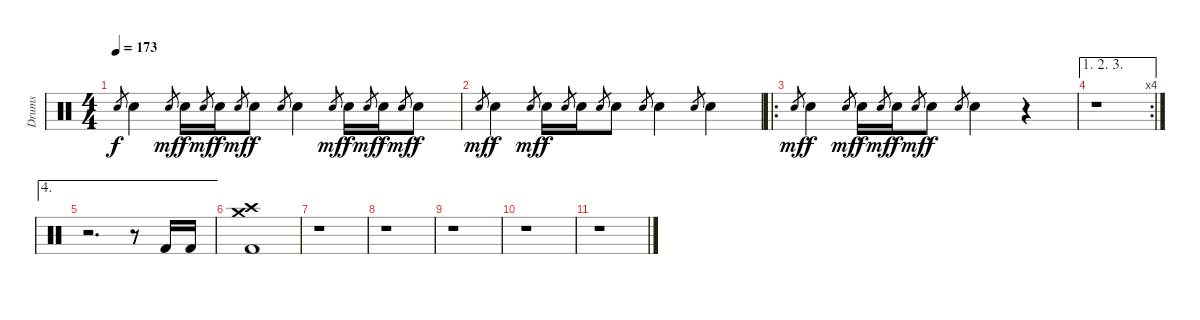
\track ("Drums" "Drums") {instrument percussion}
\staff {score}
\articulation defaults
\ts (4 4)
\tempo 173
\clef neutral
\ks c "Electric Snare (hit)".8{gr dy f} "Electric Snare (hit)".4 "Electric Snare (hit)".8{gr dy mf} "Electric Snare (hit)".16{dy f} "Electric Snare (hit)".8{gr dy mf} "Electric Snare (hit)".16{dy f} "Electric Snare (hit)".8{gr dy mf} "Electric Snare (hit)".8{dy f} "Electric Snare (hit)".8{gr} "Electric Snare (hit)".4 "Electric Snare (hit)".8{gr dy mf} "Electric Snare (hit)".16{dy f} "Electric Snare (hit)".8{gr dy mf} "Electric Snare (hit)".16{dy f} "Electric Snare (hit)".8{gr dy mf} "Electric Snare (hit)".8{dy f}
|
"Electric Snare (hit)".8{gr dy mf} "Electric Snare (hit)".4{dy f} "Electric Snare (hit)".8{gr dy mf} "Electric Snare (hit)".16{dy f} "Electric Snare (hit)".8{gr} "Electric Snare (hit)".16 "Electric Snare (hit)".8{gr} "Electric Snare (hit)".8 "Electric Snare (hit)".8{gr} "Electric Snare (hit)".4 "Electric Snare (hit)".8{gr} "Electric Snare (hit)".4 |
\ro "Electric Snare (hit)".8{gr dy mf} "Electric Snare (hit)".4{dy f} "Electric Snare (hit)".8{gr dy mf} "Electric Snare (hit)".16{dy f} "Electric Snare (hit)".8{gr dy mf} "Electric Snare (hit)".16{dy f} "Electric Snare (hit)".8{gr dy mf} "Electric Snare (hit)".8{dy f} "Electric Snare (hit)".8{gr} "Electric Snare (hit)".4
r.4 |
\ae (1 2 3)
\rc 4
r.1 |
\ae 4
r.2{d} r.8 "Kick (hit) 2".16 "Kick (hit) 2".16 |
("Crash high (hit)" "Crash medium (hit)" "Kick (hit) 2").1 |
r.1 |
r.1 |
r.1 |
r.1 |
r.1
